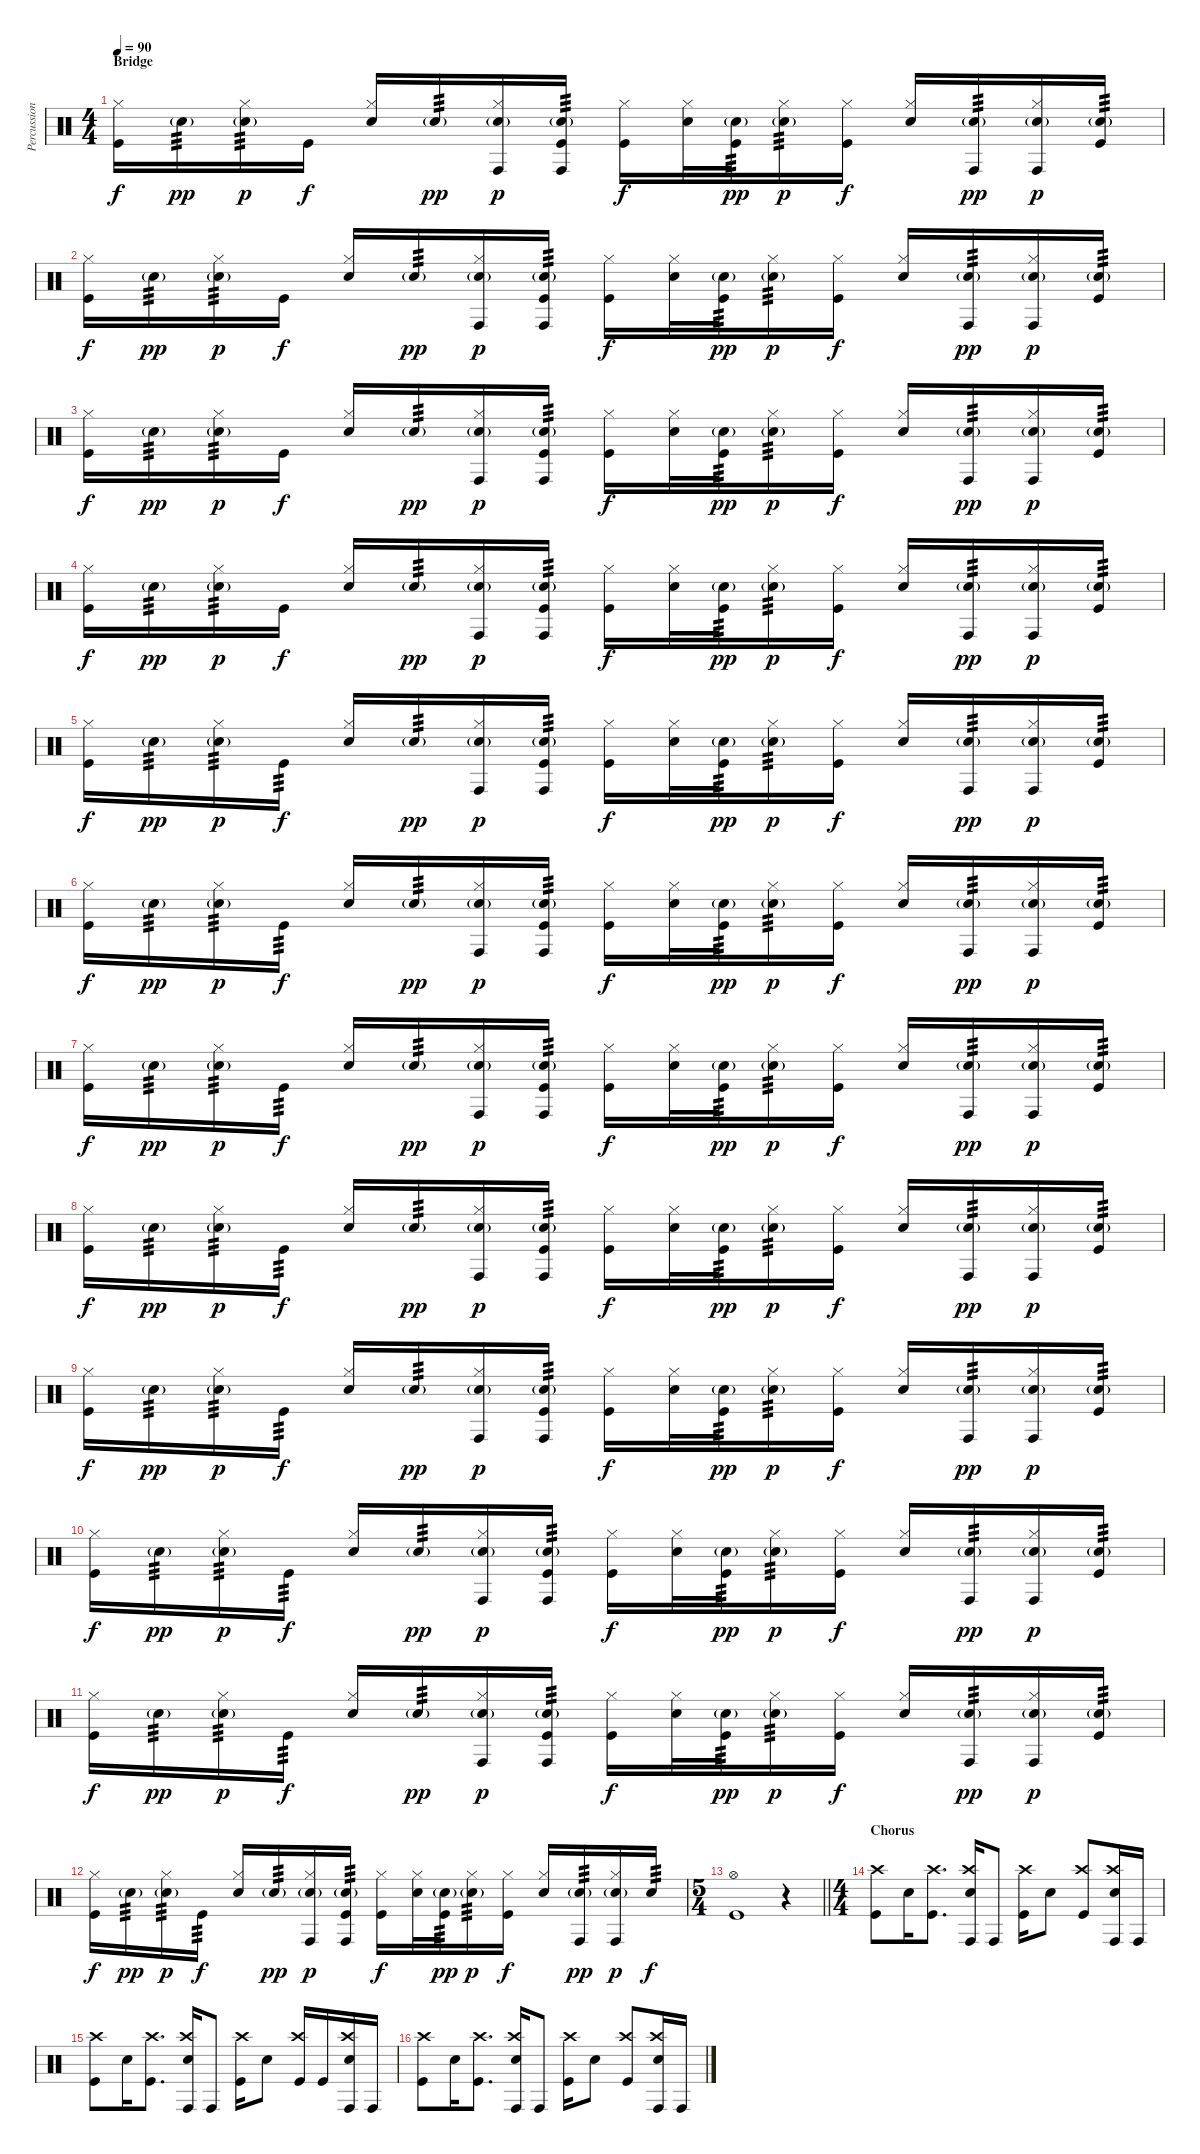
\track ("Percussion" "Percussion") {instrument percussion}
\staff {score}
\articulation defaults
\ts (4 4)
\section ("" "Bridge")
\tempo 90
\clef neutral
\ks c
("Hi-Hat (closed)" "Kick (hit)").16{dy f} "Snare (hit) 2"{g}.16{tp 3 dy pp} ("Hi-Hat (closed)" "Snare (hit) 2"{g}).16{tp 3 dy p} "Kick (hit)".16{dy f} ("Hi-Hat (closed)" "Snare (hit) 2").16 "Snare (hit) 2"{g}.16{tp 3 dy pp} ("Hi-Hat (closed)" "Snare (hit) 2"{g} "Conga high (hit)").16{dy p} ("Snare (hit) 2"{g} "Conga high (hit)" "Kick (hit)").16{tp 3} ("Hi-Hat (closed)" "Kick (hit)").16{dy f} ("Hi-Hat (closed)" "Snare (hit) 2").32 ("Snare (hit) 2"{g} "Kick (hit)").32{tp 3 dy pp} ("Hi-Hat (closed)" "Snare (hit) 2"{g}).16{tp 3 dy p} ("Hi-Hat (closed)" "Kick (hit)").16{dy f} ("Hi-Hat (closed)" "Snare (hit) 2").16 ("Snare (hit) 2"{g} "Conga high (hit)").16{tp 3 dy pp} ("Hi-Hat (closed)" "Snare (hit) 2"{g} "Conga high (hit)").16{dy p} ("Snare (hit) 2"{g} "Kick (hit)").16{tp 3} |
("Hi-Hat (closed)" "Kick (hit)").16{dy f} "Snare (hit) 2"{g}.16{tp 3 dy pp} ("Hi-Hat (closed)" "Snare (hit) 2"{g}).16{tp 3 dy p} "Kick (hit)".16{dy f} ("Hi-Hat (closed)" "Snare (hit) 2").16 "Snare (hit) 2"{g}.16{tp 3 dy pp} ("Hi-Hat (closed)" "Snare (hit) 2"{g} "Conga high (hit)").16{dy p} ("Snare (hit) 2"{g} "Conga high (hit)" "Kick (hit)").16{tp 3} ("Hi-Hat (closed)" "Kick (hit)").16{dy f} ("Hi-Hat (closed)" "Snare (hit) 2").32 ("Snare (hit) 2"{g} "Kick (hit)").32{tp 3 dy pp} ("Hi-Hat (closed)" "Snare (hit) 2"{g}).16{tp 3 dy p} ("Hi-Hat (closed)" "Kick (hit)").16{dy f} ("Hi-Hat (closed)" "Snare (hit) 2").16 ("Snare (hit) 2"{g} "Conga high (hit)").16{tp 3 dy pp} ("Hi-Hat (closed)" "Snare (hit) 2"{g} "Conga high (hit)").16{dy p} ("Snare (hit) 2"{g} "Kick (hit)").16{tp 3} |
("Hi-Hat (closed)" "Kick (hit)").16{dy f} "Snare (hit) 2"{g}.16{tp 3 dy pp} ("Hi-Hat (closed)" "Snare (hit) 2"{g}).16{tp 3 dy p} "Kick (hit)".16{dy f} ("Hi-Hat (closed)" "Snare (hit) 2").16 "Snare (hit) 2"{g}.16{tp 3 dy pp} ("Hi-Hat (closed)" "Snare (hit) 2"{g} "Conga high (hit)").16{dy p} ("Snare (hit) 2"{g} "Conga high (hit)" "Kick (hit)").16{tp 3} ("Hi-Hat (closed)" "Kick (hit)").16{dy f} ("Hi-Hat (closed)" "Snare (hit) 2").32 ("Snare (hit) 2"{g} "Kick (hit)").32{tp 3 dy pp} ("Hi-Hat (closed)" "Snare (hit) 2"{g}).16{tp 3 dy p} ("Hi-Hat (closed)" "Kick (hit)").16{dy f} ("Hi-Hat (closed)" "Snare (hit) 2").16 ("Snare (hit) 2"{g} "Conga high (hit)").16{tp 3 dy pp} ("Hi-Hat (closed)" "Snare (hit) 2"{g} "Conga high (hit)").16{dy p} ("Snare (hit) 2"{g} "Kick (hit)").16{tp 3} |
("Hi-Hat (closed)" "Kick (hit)").16{dy f} "Snare (hit) 2"{g}.16{tp 3 dy pp} ("Hi-Hat (closed)" "Snare (hit) 2"{g}).16{tp 3 dy p} "Kick (hit)".16{dy f} ("Hi-Hat (closed)" "Snare (hit) 2").16 "Snare (hit) 2"{g}.16{tp 3 dy pp} ("Hi-Hat (closed)" "Snare (hit) 2"{g} "Conga high (hit)").16{dy p} ("Snare (hit) 2"{g} "Conga high (hit)" "Kick (hit)").16{tp 3} ("Hi-Hat (closed)" "Kick (hit)").16{dy f} ("Hi-Hat (closed)" "Snare (hit) 2").32 ("Snare (hit) 2"{g} "Kick (hit)").32{tp 3 dy pp} ("Hi-Hat (closed)" "Snare (hit) 2"{g}).16{tp 3 dy p} ("Hi-Hat (closed)" "Kick (hit)").16{dy f} ("Hi-Hat (closed)" "Snare (hit) 2").16 ("Snare (hit) 2"{g} "Conga high (hit)").16{tp 3 dy pp} ("Hi-Hat (closed)" "Snare (hit) 2"{g} "Conga high (hit)").16{dy p} ("Snare (hit) 2"{g} "Kick (hit)").16{tp 3} |
("Hi-Hat (closed)" "Kick (hit)").16{dy f} "Snare (hit) 2"{g}.16{tp 3 dy pp} ("Hi-Hat (closed)" "Snare (hit) 2"{g}).16{tp 3 dy p} "Kick (hit)".16{tp 3 dy f} ("Hi-Hat (closed)" "Snare (hit) 2").16 "Snare (hit) 2"{g}.16{tp 3 dy pp} ("Hi-Hat (closed)" "Snare (hit) 2"{g} "Conga high (hit)").16{dy p} ("Snare (hit) 2"{g} "Conga high (hit)" "Kick (hit)").16{tp 3} ("Hi-Hat (closed)" "Kick (hit)").16{dy f} ("Hi-Hat (closed)" "Snare (hit) 2").32 ("Snare (hit) 2"{g} "Kick (hit)").32{tp 3 dy pp} ("Hi-Hat (closed)" "Snare (hit) 2"{g}).16{tp 3 dy p} ("Hi-Hat (closed)" "Kick (hit)").16{dy f} ("Hi-Hat (closed)" "Snare (hit) 2").16 ("Snare (hit) 2"{g} "Conga high (hit)").16{tp 3 dy pp} ("Hi-Hat (closed)" "Snare (hit) 2"{g} "Conga high (hit)").16{dy p} ("Snare (hit) 2"{g} "Kick (hit)").16{tp 3} |
("Hi-Hat (closed)" "Kick (hit)").16{dy f} "Snare (hit) 2"{g}.16{tp 3 dy pp} ("Hi-Hat (closed)" "Snare (hit) 2"{g}).16{tp 3 dy p} "Kick (hit)".16{tp 3 dy f} ("Hi-Hat (closed)" "Snare (hit) 2").16 "Snare (hit) 2"{g}.16{tp 3 dy pp} ("Hi-Hat (closed)" "Snare (hit) 2"{g} "Conga high (hit)").16{dy p} ("Snare (hit) 2"{g} "Conga high (hit)" "Kick (hit)").16{tp 3} ("Hi-Hat (closed)" "Kick (hit)").16{dy f} ("Hi-Hat (closed)" "Snare (hit) 2").32 ("Snare (hit) 2"{g} "Kick (hit)").32{tp 3 dy pp} ("Hi-Hat (closed)" "Snare (hit) 2"{g}).16{tp 3 dy p} ("Hi-Hat (closed)" "Kick (hit)").16{dy f} ("Hi-Hat (closed)" "Snare (hit) 2").16 ("Snare (hit) 2"{g} "Conga high (hit)").16{tp 3 dy pp} ("Hi-Hat (closed)" "Snare (hit) 2"{g} "Conga high (hit)").16{dy p} ("Snare (hit) 2"{g} "Kick (hit)").16{tp 3} |
("Hi-Hat (closed)" "Kick (hit)").16{dy f} "Snare (hit) 2"{g}.16{tp 3 dy pp} ("Hi-Hat (closed)" "Snare (hit) 2"{g}).16{tp 3 dy p} "Kick (hit)".16{tp 3 dy f} ("Hi-Hat (closed)" "Snare (hit) 2").16 "Snare (hit) 2"{g}.16{tp 3 dy pp} ("Hi-Hat (closed)" "Snare (hit) 2"{g} "Conga high (hit)").16{dy p} ("Snare (hit) 2"{g} "Conga high (hit)" "Kick (hit)").16{tp 3} ("Hi-Hat (closed)" "Kick (hit)").16{dy f} ("Hi-Hat (closed)" "Snare (hit) 2").32 ("Snare (hit) 2"{g} "Kick (hit)").32{tp 3 dy pp} ("Hi-Hat (closed)" "Snare (hit) 2"{g}).16{tp 3 dy p} ("Hi-Hat (closed)" "Kick (hit)").16{dy f} ("Hi-Hat (closed)" "Snare (hit) 2").16 ("Snare (hit) 2"{g} "Conga high (hit)").16{tp 3 dy pp} ("Hi-Hat (closed)" "Snare (hit) 2"{g} "Conga high (hit)").16{dy p} ("Snare (hit) 2"{g} "Kick (hit)").16{tp 3} |
("Hi-Hat (closed)" "Kick (hit)").16{dy f} "Snare (hit) 2"{g}.16{tp 3 dy pp} ("Hi-Hat (closed)" "Snare (hit) 2"{g}).16{tp 3 dy p} "Kick (hit)".16{tp 3 dy f} ("Hi-Hat (closed)" "Snare (hit) 2").16 "Snare (hit) 2"{g}.16{tp 3 dy pp} ("Hi-Hat (closed)" "Snare (hit) 2"{g} "Conga high (hit)").16{dy p} ("Snare (hit) 2"{g} "Conga high (hit)" "Kick (hit)").16{tp 3} ("Hi-Hat (closed)" "Kick (hit)").16{dy f} ("Hi-Hat (closed)" "Snare (hit) 2").32 ("Snare (hit) 2"{g} "Kick (hit)").32{tp 3 dy pp} ("Hi-Hat (closed)" "Snare (hit) 2"{g}).16{tp 3 dy p} ("Hi-Hat (closed)" "Kick (hit)").16{dy f} ("Hi-Hat (closed)" "Snare (hit) 2").16 ("Snare (hit) 2"{g} "Conga high (hit)").16{tp 3 dy pp} ("Hi-Hat (closed)" "Snare (hit) 2"{g} "Conga high (hit)").16{dy p} ("Snare (hit) 2"{g} "Kick (hit)").16{tp 3} |
("Hi-Hat (closed)" "Kick (hit)").16{dy f} "Snare (hit) 2"{g}.16{tp 3 dy pp} ("Hi-Hat (closed)" "Snare (hit) 2"{g}).16{tp 3 dy p} "Kick (hit)".16{tp 3 dy f} ("Hi-Hat (closed)" "Snare (hit) 2").16 "Snare (hit) 2"{g}.16{tp 3 dy pp} ("Hi-Hat (closed)" "Snare (hit) 2"{g} "Conga high (hit)").16{dy p} ("Snare (hit) 2"{g} "Conga high (hit)" "Kick (hit)").16{tp 3} ("Hi-Hat (closed)" "Kick (hit)").16{dy f} ("Hi-Hat (closed)" "Snare (hit) 2").32 ("Snare (hit) 2"{g} "Kick (hit)").32{tp 3 dy pp} ("Hi-Hat (closed)" "Snare (hit) 2"{g}).16{tp 3 dy p} ("Hi-Hat (closed)" "Kick (hit)").16{dy f} ("Hi-Hat (closed)" "Snare (hit) 2").16 ("Snare (hit) 2"{g} "Conga high (hit)").16{tp 3 dy pp} ("Hi-Hat (closed)" "Snare (hit) 2"{g} "Conga high (hit)").16{dy p} ("Snare (hit) 2"{g} "Kick (hit)").16{tp 3} |
("Hi-Hat (closed)" "Kick (hit)").16{dy f} "Snare (hit) 2"{g}.16{tp 3 dy pp} ("Hi-Hat (closed)" "Snare (hit) 2"{g}).16{tp 3 dy p} "Kick (hit)".16{tp 3 dy f} ("Hi-Hat (closed)" "Snare (hit) 2").16 "Snare (hit) 2"{g}.16{tp 3 dy pp} ("Hi-Hat (closed)" "Snare (hit) 2"{g} "Conga high (hit)").16{dy p} ("Snare (hit) 2"{g} "Conga high (hit)" "Kick (hit)").16{tp 3} ("Hi-Hat (closed)" "Kick (hit)").16{dy f} ("Hi-Hat (closed)" "Snare (hit) 2").32 ("Snare (hit) 2"{g} "Kick (hit)").32{tp 3 dy pp} ("Hi-Hat (closed)" "Snare (hit) 2"{g}).16{tp 3 dy p} ("Hi-Hat (closed)" "Kick (hit)").16{dy f} ("Hi-Hat (closed)" "Snare (hit) 2").16 ("Snare (hit) 2"{g} "Conga high (hit)").16{tp 3 dy pp} ("Hi-Hat (closed)" "Snare (hit) 2"{g} "Conga high (hit)").16{dy p} ("Snare (hit) 2"{g} "Kick (hit)").16{tp 3} |
("Hi-Hat (closed)" "Kick (hit)").16{dy f} "Snare (hit) 2"{g}.16{tp 3 dy pp} ("Hi-Hat (closed)" "Snare (hit) 2"{g}).16{tp 3 dy p} "Kick (hit)".16{tp 3 dy f} ("Hi-Hat (closed)" "Snare (hit) 2").16 "Snare (hit) 2"{g}.16{tp 3 dy pp} ("Hi-Hat (closed)" "Snare (hit) 2"{g} "Conga high (hit)").16{dy p} ("Snare (hit) 2"{g} "Conga high (hit)" "Kick (hit)").16{tp 3} ("Hi-Hat (closed)" "Kick (hit)").16{dy f} ("Hi-Hat (closed)" "Snare (hit) 2").32 ("Snare (hit) 2"{g} "Kick (hit)").32{tp 3 dy pp} ("Hi-Hat (closed)" "Snare (hit) 2"{g}).16{tp 3 dy p} ("Hi-Hat (closed)" "Kick (hit)").16{dy f} ("Hi-Hat (closed)" "Snare (hit) 2").16 ("Snare (hit) 2"{g} "Conga high (hit)").16{tp 3 dy pp} ("Hi-Hat (closed)" "Snare (hit) 2"{g} "Conga high (hit)").16{dy p} ("Snare (hit) 2"{g} "Kick (hit)").16{tp 3} |
("Hi-Hat (closed)" "Kick (hit)").16{dy f} "Snare (hit) 2"{g}.16{tp 3 dy pp} ("Hi-Hat (closed)" "Snare (hit) 2"{g}).16{tp 3 dy p} "Kick (hit)".16{tp 3 dy f} ("Hi-Hat (closed)" "Snare (hit) 2").16 "Snare (hit) 2"{g}.16{tp 3 dy pp} ("Hi-Hat (closed)" "Snare (hit) 2"{g} "Conga high (hit)").16{dy p} ("Snare (hit) 2"{g} "Conga high (hit)" "Kick (hit)").16{tp 3} ("Hi-Hat (closed)" "Kick (hit)").16{dy f} ("Hi-Hat (closed)" "Snare (hit) 2").32 ("Snare (hit) 2"{g} "Kick (hit)").32{tp 3 dy pp} ("Hi-Hat (closed)" "Snare (hit) 2"{g}).16{tp 3 dy p} ("Hi-Hat (closed)" "Kick (hit)").16{dy f} ("Hi-Hat (closed)" "Snare (hit) 2").16 ("Snare (hit) 2"{g} "Conga high (hit)").16{tp 3 dy pp} ("Hi-Hat (closed)" "Snare (hit) 2"{g} "Conga high (hit)").16{dy p} "Snare (hit) 2".16{tp 3 dy f} |
\ts (5 4)
\barLineRight lightlight
("Hi-Hat (open)" "Kick (hit)").1 r.4 |
\ts (4 4)
\section ("" "Chorus")
("Crash high (hit)" "Kick (hit)").8 "Snare (hit) 2".16 ("Crash high (hit)" "Kick (hit)").8{d} ("Crash high (hit)" "Snare (hit) 2" "Conga high (hit)").16 "Conga high (hit)".8 ("Crash high (hit)" "Kick (hit)").16 "Snare (hit) 2".8 ("Crash high (hit)" "Kick (hit)").8 ("Crash high (hit)" "Snare (hit) 2" "Conga high (hit)").16 "Conga high (hit)".16 |
("Crash high (hit)" "Kick (hit)").8 "Snare (hit) 2".16 ("Crash high (hit)" "Kick (hit)").8{d} ("Crash high (hit)" "Snare (hit) 2" "Conga high (hit)").16 "Conga high (hit)".8 ("Crash high (hit)" "Kick (hit)").16 "Snare (hit) 2".8 ("Crash high (hit)" "Kick (hit)").16 "Kick (hit)".16 ("Crash high (hit)" "Snare (hit) 2" "Conga high (hit)").16 "Conga high (hit)".16 |
("Crash high (hit)" "Kick (hit)").8 "Snare (hit) 2".16 ("Crash high (hit)" "Kick (hit)").8{d} ("Crash high (hit)" "Snare (hit) 2" "Conga high (hit)").16 "Conga high (hit)".8 ("Crash high (hit)" "Kick (hit)").16 "Snare (hit) 2".8 ("Crash high (hit)" "Kick (hit)").8 ("Crash high (hit)" "Snare (hit) 2" "Conga high (hit)").16 "Conga high (hit)".16
